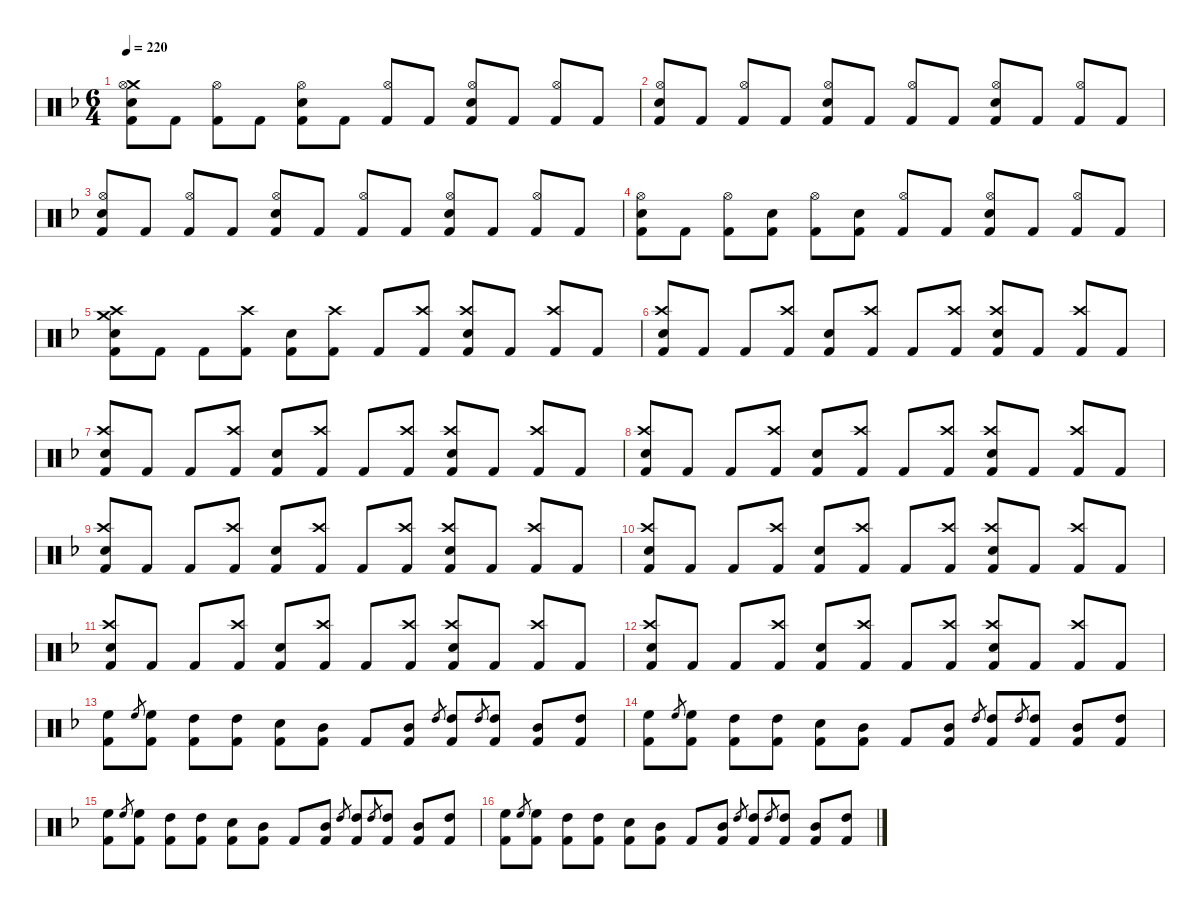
\hideDynamics
\bracketExtendMode nobrackets
\singleTrackTrackNamePolicy hidden
\multiTrackTrackNamePolicy hidden
\firstSystemTrackNameMode fullname
\firstSystemTrackNameOrientation horizontal
\otherSystemsTrackNameOrientation horizontal
\track ("Drumkit" "Drums") {instrument percussion}
\staff {score}
\articulation defaults
\ts (6 4)
\tempo 220
\clef neutral
\ks dminor
("Crash medium (hit)"{acc forcenatural} "Hi-Hat (open)"{acc forcenatural} "Snare (hit) 2"{acc forcenatural} "Kick (hit) 2"{acc forcenatural}).8{dy f beam Down} "Kick (hit) 2"{acc forcenatural}.8{beam Down} ("Hi-Hat (open)"{acc forcenatural} "Kick (hit) 2"{acc forcenatural}).8{beam Down} "Kick (hit) 2"{acc forcenatural}.8{beam Down} ("Hi-Hat (open)"{acc forcenatural} "Snare (hit) 2"{acc forcenatural} "Kick (hit) 2"{acc forcenatural}).8{beam Down} "Kick (hit) 2"{acc forcenatural}.8{beam Down} ("Hi-Hat (open)"{acc forcenatural} "Kick (hit) 2"{acc forcenatural}).8{beam Up} "Kick (hit) 2"{acc forcenatural}.8{beam Up} ("Hi-Hat (open)"{acc forcenatural} "Snare (hit) 2"{acc forcenatural} "Kick (hit) 2"{acc forcenatural}).8{beam Up} "Kick (hit) 2"{acc forcenatural}.8{beam Up} ("Hi-Hat (open)"{acc forcenatural} "Kick (hit) 2"{acc forcenatural}).8{beam Up} "Kick (hit) 2"{acc forcenatural}.8{beam Up} |
("Hi-Hat (open)"{acc forcenatural} "Snare (hit) 2"{acc forcenatural} "Kick (hit) 2"{acc forcenatural}).8{beam Up} "Kick (hit) 2"{acc forcenatural}.8{beam Up} ("Hi-Hat (open)"{acc forcenatural} "Kick (hit) 2"{acc forcenatural}).8{beam Up} "Kick (hit) 2"{acc forcenatural}.8{beam Up} ("Hi-Hat (open)"{acc forcenatural} "Snare (hit) 2"{acc forcenatural} "Kick (hit) 2"{acc forcenatural}).8{beam Up} "Kick (hit) 2"{acc forcenatural}.8{beam Up} ("Hi-Hat (open)"{acc forcenatural} "Kick (hit) 2"{acc forcenatural}).8{beam Up} "Kick (hit) 2"{acc forcenatural}.8{beam Up} ("Hi-Hat (open)"{acc forcenatural} "Snare (hit) 2"{acc forcenatural} "Kick (hit) 2"{acc forcenatural}).8{beam Up} "Kick (hit) 2"{acc forcenatural}.8{beam Up} ("Hi-Hat (open)"{acc forcenatural} "Kick (hit) 2"{acc forcenatural}).8{beam Up} "Kick (hit) 2"{acc forcenatural}.8{beam Up} |
("Hi-Hat (open)"{acc forcenatural} "Snare (hit) 2"{acc forcenatural} "Kick (hit) 2"{acc forcenatural}).8{beam Up} "Kick (hit) 2"{acc forcenatural}.8{beam Up} ("Hi-Hat (open)"{acc forcenatural} "Kick (hit) 2"{acc forcenatural}).8{beam Up} "Kick (hit) 2"{acc forcenatural}.8{beam Up} ("Hi-Hat (open)"{acc forcenatural} "Snare (hit) 2"{acc forcenatural} "Kick (hit) 2"{acc forcenatural}).8{beam Up} "Kick (hit) 2"{acc forcenatural}.8{beam Up} ("Hi-Hat (open)"{acc forcenatural} "Kick (hit) 2"{acc forcenatural}).8{beam Up} "Kick (hit) 2"{acc forcenatural}.8{beam Up} ("Hi-Hat (open)"{acc forcenatural} "Snare (hit) 2"{acc forcenatural} "Kick (hit) 2"{acc forcenatural}).8{beam Up} "Kick (hit) 2"{acc forcenatural}.8{beam Up} ("Hi-Hat (open)"{acc forcenatural} "Kick (hit) 2"{acc forcenatural}).8{beam Up} "Kick (hit) 2"{acc forcenatural}.8{beam Up} |
("Hi-Hat (open)"{acc forcenatural} "Snare (hit) 2"{acc forcenatural} "Kick (hit) 2"{acc forcenatural}).8{beam Down} "Kick (hit) 2"{acc forcenatural}.8{beam Down} ("Hi-Hat (open)"{acc forcenatural} "Kick (hit) 2"{acc forcenatural}).8{beam Down} ("Snare (hit) 2"{acc forcenatural} "Kick (hit) 2"{acc forcenatural}).8{beam Down} ("Hi-Hat (open)"{acc forcenatural} "Kick (hit) 2"{acc forcenatural}).8{beam Down} ("Snare (hit) 2"{acc forcenatural} "Kick (hit) 2"{acc forcenatural}).8{beam Down} ("Hi-Hat (open)"{acc forcenatural} "Kick (hit) 2"{acc forcenatural}).8{beam Up} "Kick (hit) 2"{acc forcenatural}.8{beam Up} ("Hi-Hat (open)"{acc forcenatural} "Snare (hit) 2"{acc forcenatural} "Kick (hit) 2"{acc forcenatural}).8{beam Up} "Kick (hit) 2"{acc forcenatural}.8{beam Up} ("Hi-Hat (open)"{acc forcenatural} "Kick (hit) 2"{acc forcenatural}).8{beam Up} "Kick (hit) 2"{acc forcenatural}.8{beam Up} |
("Crash medium (hit)"{acc forcenatural} "Crash high (hit)"{acc forcenatural} "Snare (hit) 2"{acc forcenatural} "Kick (hit) 2"{acc forcenatural}).8{beam Down} "Kick (hit) 2"{acc forcenatural}.8{beam Down} "Kick (hit) 2"{acc forcenatural}.8{beam Down} ("Crash high (hit)"{acc forcenatural} "Kick (hit) 2"{acc forcenatural}).8{beam Down} ("Snare (hit) 2"{acc forcenatural} "Kick (hit) 2"{acc forcenatural}).8{beam Down} ("Crash high (hit)"{acc forcenatural} "Kick (hit) 2"{acc forcenatural}).8{beam Down} "Kick (hit) 2"{acc forcenatural}.8{beam Up} ("Crash high (hit)"{acc forcenatural} "Kick (hit) 2"{acc forcenatural}).8{beam Up} ("Crash high (hit)"{acc forcenatural} "Snare (hit) 2"{acc forcenatural} "Kick (hit) 2"{acc forcenatural}).8{beam Up} "Kick (hit) 2"{acc forcenatural}.8{beam Up} ("Crash high (hit)"{acc forcenatural} "Kick (hit) 2"{acc forcenatural}).8{beam Up} "Kick (hit) 2"{acc forcenatural}.8{beam Up} |
("Crash high (hit)"{acc forcenatural} "Snare (hit) 2"{acc forcenatural} "Kick (hit) 2"{acc forcenatural}).8{beam Up} "Kick (hit) 2"{acc forcenatural}.8{beam Up} "Kick (hit) 2"{acc forcenatural}.8{beam Up} ("Crash high (hit)"{acc forcenatural} "Kick (hit) 2"{acc forcenatural}).8{beam Up} ("Snare (hit) 2"{acc forcenatural} "Kick (hit) 2"{acc forcenatural}).8{beam Up} ("Crash high (hit)"{acc forcenatural} "Kick (hit) 2"{acc forcenatural}).8{beam Up} "Kick (hit) 2"{acc forcenatural}.8{beam Up} ("Crash high (hit)"{acc forcenatural} "Kick (hit) 2"{acc forcenatural}).8{beam Up} ("Crash high (hit)"{acc forcenatural} "Snare (hit) 2"{acc forcenatural} "Kick (hit) 2"{acc forcenatural}).8{beam Up} "Kick (hit) 2"{acc forcenatural}.8{beam Up} ("Crash high (hit)"{acc forcenatural} "Kick (hit) 2"{acc forcenatural}).8{beam Up} "Kick (hit) 2"{acc forcenatural}.8{beam Up} |
("Crash high (hit)"{acc forcenatural} "Snare (hit) 2"{acc forcenatural} "Kick (hit) 2"{acc forcenatural}).8{beam Up} "Kick (hit) 2"{acc forcenatural}.8{beam Up} "Kick (hit) 2"{acc forcenatural}.8{beam Up} ("Crash high (hit)"{acc forcenatural} "Kick (hit) 2"{acc forcenatural}).8{beam Up} ("Snare (hit) 2"{acc forcenatural} "Kick (hit) 2"{acc forcenatural}).8{beam Up} ("Crash high (hit)"{acc forcenatural} "Kick (hit) 2"{acc forcenatural}).8{beam Up} "Kick (hit) 2"{acc forcenatural}.8{beam Up} ("Crash high (hit)"{acc forcenatural} "Kick (hit) 2"{acc forcenatural}).8{beam Up} ("Crash high (hit)"{acc forcenatural} "Snare (hit) 2"{acc forcenatural} "Kick (hit) 2"{acc forcenatural}).8{beam Up} "Kick (hit) 2"{acc forcenatural}.8{beam Up} ("Crash high (hit)"{acc forcenatural} "Kick (hit) 2"{acc forcenatural}).8{beam Up} "Kick (hit) 2"{acc forcenatural}.8{beam Up} |
("Crash high (hit)"{acc forcenatural} "Snare (hit) 2"{acc forcenatural} "Kick (hit) 2"{acc forcenatural}).8{beam Up} "Kick (hit) 2"{acc forcenatural}.8{beam Up} "Kick (hit) 2"{acc forcenatural}.8{beam Up} ("Crash high (hit)"{acc forcenatural} "Kick (hit) 2"{acc forcenatural}).8{beam Up} ("Snare (hit) 2"{acc forcenatural} "Kick (hit) 2"{acc forcenatural}).8{beam Up} ("Crash high (hit)"{acc forcenatural} "Kick (hit) 2"{acc forcenatural}).8{beam Up} "Kick (hit) 2"{acc forcenatural}.8{beam Up} ("Crash high (hit)"{acc forcenatural} "Kick (hit) 2"{acc forcenatural}).8{beam Up} ("Crash high (hit)"{acc forcenatural} "Snare (hit) 2"{acc forcenatural} "Kick (hit) 2"{acc forcenatural}).8{beam Up} "Kick (hit) 2"{acc forcenatural}.8{beam Up} ("Crash high (hit)"{acc forcenatural} "Kick (hit) 2"{acc forcenatural}).8{beam Up} "Kick (hit) 2"{acc forcenatural}.8{beam Up} |
("Crash high (hit)"{acc forcenatural} "Snare (hit) 2"{acc forcenatural} "Kick (hit) 2"{acc forcenatural}).8{beam Up} "Kick (hit) 2"{acc forcenatural}.8{beam Up} "Kick (hit) 2"{acc forcenatural}.8{beam Up} ("Crash high (hit)"{acc forcenatural} "Kick (hit) 2"{acc forcenatural}).8{beam Up} ("Snare (hit) 2"{acc forcenatural} "Kick (hit) 2"{acc forcenatural}).8{beam Up} ("Crash high (hit)"{acc forcenatural} "Kick (hit) 2"{acc forcenatural}).8{beam Up} "Kick (hit) 2"{acc forcenatural}.8{beam Up} ("Crash high (hit)"{acc forcenatural} "Kick (hit) 2"{acc forcenatural}).8{beam Up} ("Crash high (hit)"{acc forcenatural} "Snare (hit) 2"{acc forcenatural} "Kick (hit) 2"{acc forcenatural}).8{beam Up} "Kick (hit) 2"{acc forcenatural}.8{beam Up} ("Crash high (hit)"{acc forcenatural} "Kick (hit) 2"{acc forcenatural}).8{beam Up} "Kick (hit) 2"{acc forcenatural}.8{beam Up} |
("Crash high (hit)"{acc forcenatural} "Snare (hit) 2"{acc forcenatural} "Kick (hit) 2"{acc forcenatural}).8{beam Up} "Kick (hit) 2"{acc forcenatural}.8{beam Up} "Kick (hit) 2"{acc forcenatural}.8{beam Up} ("Crash high (hit)"{acc forcenatural} "Kick (hit) 2"{acc forcenatural}).8{beam Up} ("Snare (hit) 2"{acc forcenatural} "Kick (hit) 2"{acc forcenatural}).8{beam Up} ("Crash high (hit)"{acc forcenatural} "Kick (hit) 2"{acc forcenatural}).8{beam Up} "Kick (hit) 2"{acc forcenatural}.8{beam Up} ("Crash high (hit)"{acc forcenatural} "Kick (hit) 2"{acc forcenatural}).8{beam Up} ("Crash high (hit)"{acc forcenatural} "Snare (hit) 2"{acc forcenatural} "Kick (hit) 2"{acc forcenatural}).8{beam Up} "Kick (hit) 2"{acc forcenatural}.8{beam Up} ("Crash high (hit)"{acc forcenatural} "Kick (hit) 2"{acc forcenatural}).8{beam Up} "Kick (hit) 2"{acc forcenatural}.8{beam Up} |
("Crash high (hit)"{acc forcenatural} "Snare (hit) 2"{acc forcenatural} "Kick (hit) 2"{acc forcenatural}).8{beam Up} "Kick (hit) 2"{acc forcenatural}.8{beam Up} "Kick (hit) 2"{acc forcenatural}.8{beam Up} ("Crash high (hit)"{acc forcenatural} "Kick (hit) 2"{acc forcenatural}).8{beam Up} ("Snare (hit) 2"{acc forcenatural} "Kick (hit) 2"{acc forcenatural}).8{beam Up} ("Crash high (hit)"{acc forcenatural} "Kick (hit) 2"{acc forcenatural}).8{beam Up} "Kick (hit) 2"{acc forcenatural}.8{beam Up} ("Crash high (hit)"{acc forcenatural} "Kick (hit) 2"{acc forcenatural}).8{beam Up} ("Crash high (hit)"{acc forcenatural} "Snare (hit) 2"{acc forcenatural} "Kick (hit) 2"{acc forcenatural}).8{beam Up} "Kick (hit) 2"{acc forcenatural}.8{beam Up} ("Crash high (hit)"{acc forcenatural} "Kick (hit) 2"{acc forcenatural}).8{beam Up} "Kick (hit) 2"{acc forcenatural}.8{beam Up} |
("Crash high (hit)"{acc forcenatural} "Snare (hit) 2"{acc forcenatural} "Kick (hit) 2"{acc forcenatural}).8{beam Up} "Kick (hit) 2"{acc forcenatural}.8{beam Up} "Kick (hit) 2"{acc forcenatural}.8{beam Up} ("Crash high (hit)"{acc forcenatural} "Kick (hit) 2"{acc forcenatural}).8{beam Up} ("Snare (hit) 2"{acc forcenatural} "Kick (hit) 2"{acc forcenatural}).8{beam Up} ("Crash high (hit)"{acc forcenatural} "Kick (hit) 2"{acc forcenatural}).8{beam Up} "Kick (hit) 2"{acc forcenatural}.8{beam Up} ("Crash high (hit)"{acc forcenatural} "Kick (hit) 2"{acc forcenatural}).8{beam Up} ("Crash high (hit)"{acc forcenatural} "Snare (hit) 2"{acc forcenatural} "Kick (hit) 2"{acc forcenatural}).8{beam Up} "Kick (hit) 2"{acc forcenatural}.8{beam Up} ("Crash high (hit)"{acc forcenatural} "Kick (hit) 2"{acc forcenatural}).8{beam Up} "Kick (hit) 2"{acc forcenatural}.8{beam Up} |
("High Floor Tom (hit)"{acc forcenatural} "Kick (hit) 2"{acc forcenatural}).8{beam Down} "High Floor Tom (hit)"{acc forcenatural}.8{gr dy mf beam Up} ("High Floor Tom (hit)"{acc forcenatural} "Kick (hit) 2"{acc forcenatural}).8{dy f beam Down} ("High Tom (hit)"{acc forcenatural} "Kick (hit) 2"{acc forcenatural}).8{beam Down} ("High Tom (hit)"{acc forcenatural} "Kick (hit) 2"{acc forcenatural}).8{beam Down} ("Snare (hit) 2"{acc forcenatural} "Kick (hit) 2"{acc forcenatural}).8{beam Down} ("Mid Tom (hit)"{acc forcenatural} "Kick (hit) 2"{acc forcenatural}).8{beam Down} "Kick (hit) 2"{acc forcenatural}.8{beam Up} ("Mid Tom (hit)"{acc forcenatural} "Kick (hit) 2"{acc forcenatural}).8{beam Up} "High Tom (hit)"{acc forcenatural}.8{gr dy mf beam Up} ("High Tom (hit)"{acc forcenatural} "Kick (hit) 2"{acc forcenatural}).8{dy f beam Up} "High Tom (hit)"{acc forcenatural}.8{gr dy mf beam Up} ("High Tom (hit)"{acc forcenatural} "Kick (hit) 2"{acc forcenatural}).8{dy f beam Up} ("Mid Tom (hit)"{acc forcenatural} "Kick (hit) 2"{acc forcenatural}).8{beam Up} ("High Tom (hit)"{acc forcenatural} "Kick (hit) 2"{acc forcenatural}).8{beam Up} |
("High Floor Tom (hit)"{acc forcenatural} "Kick (hit) 2"{acc forcenatural}).8{beam Down} "High Floor Tom (hit)"{acc forcenatural}.8{gr dy mf beam Up} ("High Floor Tom (hit)"{acc forcenatural} "Kick (hit) 2"{acc forcenatural}).8{dy f beam Down} ("High Tom (hit)"{acc forcenatural} "Kick (hit) 2"{acc forcenatural}).8{beam Down} ("High Tom (hit)"{acc forcenatural} "Kick (hit) 2"{acc forcenatural}).8{beam Down} ("Snare (hit) 2"{acc forcenatural} "Kick (hit) 2"{acc forcenatural}).8{beam Down} ("Mid Tom (hit)"{acc forcenatural} "Kick (hit) 2"{acc forcenatural}).8{beam Down} "Kick (hit) 2"{acc forcenatural}.8{beam Up} ("Mid Tom (hit)"{acc forcenatural} "Kick (hit) 2"{acc forcenatural}).8{beam Up} "High Tom (hit)"{acc forcenatural}.8{gr dy mf beam Up} ("High Tom (hit)"{acc forcenatural} "Kick (hit) 2"{acc forcenatural}).8{dy f beam Up} "High Tom (hit)"{acc forcenatural}.8{gr dy mf beam Up} ("High Tom (hit)"{acc forcenatural} "Kick (hit) 2"{acc forcenatural}).8{dy f beam Up} ("Mid Tom (hit)"{acc forcenatural} "Kick (hit) 2"{acc forcenatural}).8{beam Up} ("High Tom (hit)"{acc forcenatural} "Kick (hit) 2"{acc forcenatural}).8{beam Up} |
("High Floor Tom (hit)"{acc forcenatural} "Kick (hit) 2"{acc forcenatural}).8{beam Down} "High Floor Tom (hit)"{acc forcenatural}.8{gr dy mf beam Up} ("High Floor Tom (hit)"{acc forcenatural} "Kick (hit) 2"{acc forcenatural}).8{dy f beam Down} ("High Tom (hit)"{acc forcenatural} "Kick (hit) 2"{acc forcenatural}).8{beam Down} ("High Tom (hit)"{acc forcenatural} "Kick (hit) 2"{acc forcenatural}).8{beam Down} ("Snare (hit) 2"{acc forcenatural} "Kick (hit) 2"{acc forcenatural}).8{beam Down} ("Mid Tom (hit)"{acc forcenatural} "Kick (hit) 2"{acc forcenatural}).8{beam Down} "Kick (hit) 2"{acc forcenatural}.8{beam Up} ("Mid Tom (hit)"{acc forcenatural} "Kick (hit) 2"{acc forcenatural}).8{beam Up} "High Tom (hit)"{acc forcenatural}.8{gr dy mf beam Up} ("High Tom (hit)"{acc forcenatural} "Kick (hit) 2"{acc forcenatural}).8{dy f beam Up} "High Tom (hit)"{acc forcenatural}.8{gr dy mf beam Up} ("High Tom (hit)"{acc forcenatural} "Kick (hit) 2"{acc forcenatural}).8{dy f beam Up} ("Mid Tom (hit)"{acc forcenatural} "Kick (hit) 2"{acc forcenatural}).8{beam Up} ("High Tom (hit)"{acc forcenatural} "Kick (hit) 2"{acc forcenatural}).8{beam Up} |
("High Floor Tom (hit)"{acc forcenatural} "Kick (hit) 2"{acc forcenatural}).8{beam Down} "High Floor Tom (hit)"{acc forcenatural}.8{gr dy mf beam Up} ("High Floor Tom (hit)"{acc forcenatural} "Kick (hit) 2"{acc forcenatural}).8{dy f beam Down} ("High Tom (hit)"{acc forcenatural} "Kick (hit) 2"{acc forcenatural}).8{beam Down} ("High Tom (hit)"{acc forcenatural} "Kick (hit) 2"{acc forcenatural}).8{beam Down} ("Snare (hit) 2"{acc forcenatural} "Kick (hit) 2"{acc forcenatural}).8{beam Down} ("Mid Tom (hit)"{acc forcenatural} "Kick (hit) 2"{acc forcenatural}).8{beam Down} "Kick (hit) 2"{acc forcenatural}.8{beam Up} ("Mid Tom (hit)"{acc forcenatural} "Kick (hit) 2"{acc forcenatural}).8{beam Up} "High Tom (hit)"{acc forcenatural}.8{gr dy mf beam Up} ("High Tom (hit)"{acc forcenatural} "Kick (hit) 2"{acc forcenatural}).8{dy f beam Up} "High Tom (hit)"{acc forcenatural}.8{gr dy mf beam Up} ("High Tom (hit)"{acc forcenatural} "Kick (hit) 2"{acc forcenatural}).8{dy f beam Up} ("Mid Tom (hit)"{acc forcenatural} "Kick (hit) 2"{acc forcenatural}).8{beam Up} ("High Tom (hit)"{acc forcenatural} "Kick (hit) 2"{acc forcenatural}).8{beam Up}
